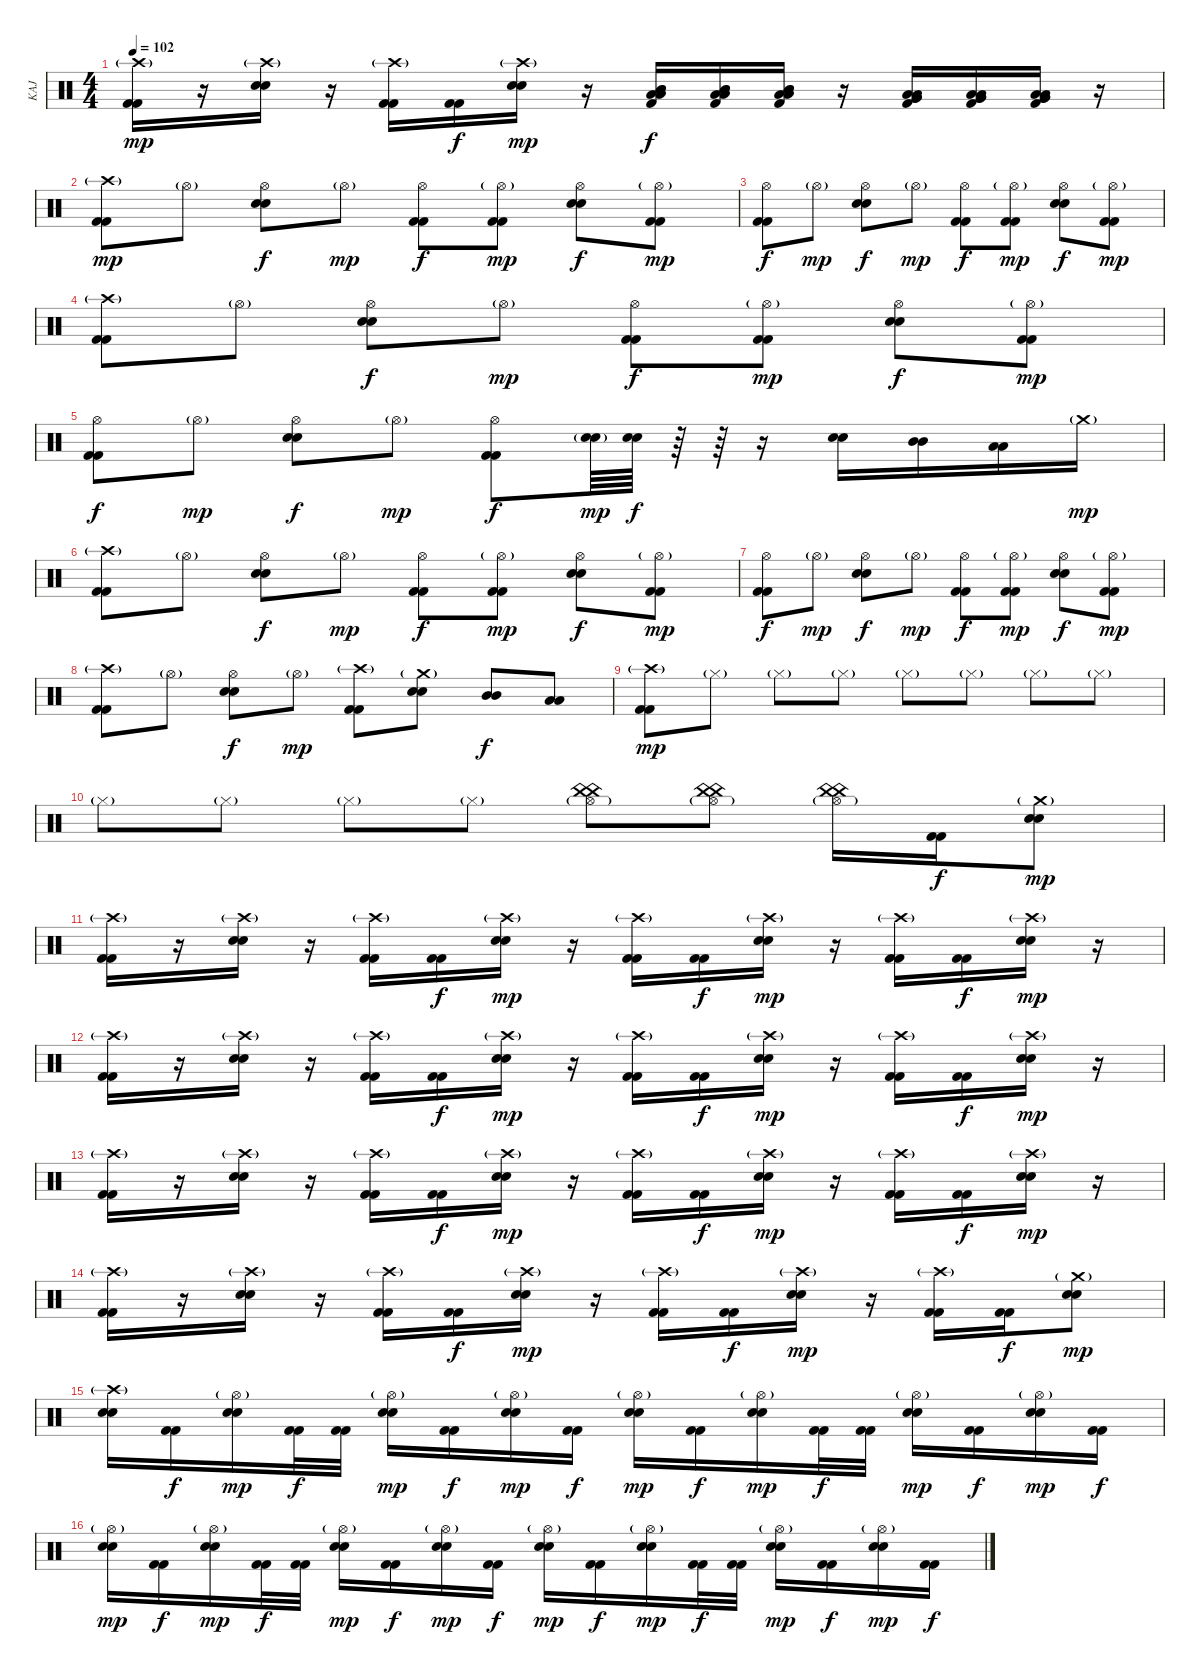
\track ("KAJ" "KAJ") {instrument percussion}
\staff {score}
\articulation defaults
\ts (4 4)
\tempo 102
\clef neutral
\ks c
("Crash high (hit)"{g} "Kick (hit) 2" "Kick (hit) 2").16{dy mp} r.16 ("Crash high (hit)"{g} "Electric Snare (hit)" "Electric Snare (hit)").16 r.16 ("Crash high (hit)"{g} "Kick (hit) 2" "Kick (hit) 2").16 ("Kick (hit) 2" "Kick (hit) 2").16{dy f} ("Crash high (hit)"{g} "Electric Snare (hit)" "Electric Snare (hit)").16{dy mp} r.16 ("Kick (hit) 2" "Mid Tom (hit)" "Mid Tom (hit)" "Low Tom (hit)" "Low Tom (hit)").16{dy f} ("Kick (hit) 2" "Mid Tom (hit)" "Mid Tom (hit)" "Low Tom (hit)" "Low Tom (hit)").16 ("Kick (hit) 2" "Mid Tom (hit)" "Mid Tom (hit)" "Low Tom (hit)" "Low Tom (hit)").16 r.16 ("Kick (hit) 2" "Low Tom (hit)" "Low Tom (hit)" "Very Low Tom (hit)" "Very Low Tom (hit)").16 ("Kick (hit) 2" "Low Tom (hit)" "Low Tom (hit)" "Very Low Tom (hit)" "Very Low Tom (hit)").16 ("Kick (hit) 2" "Low Tom (hit)" "Low Tom (hit)" "Very Low Tom (hit)" "Very Low Tom (hit)").16 r.16 |
("Crash high (hit)"{g} "Kick (hit) 2" "Kick (hit) 2").8{dy mp} "Hi-Hat (open)"{g}.8 ("Hi-Hat (open)" "Electric Snare (hit)" "Electric Snare (hit)").8{dy f} "Hi-Hat (open)"{g}.8{dy mp} ("Hi-Hat (open)" "Kick (hit) 2" "Kick (hit) 2").8{dy f} ("Hi-Hat (open)"{g} "Kick (hit) 2" "Kick (hit) 2").8{dy mp} ("Hi-Hat (open)" "Electric Snare (hit)" "Electric Snare (hit)").8{dy f} ("Hi-Hat (open)"{g} "Kick (hit) 2" "Kick (hit) 2").8{dy mp} |
("Hi-Hat (open)" "Kick (hit) 2" "Kick (hit) 2").8{dy f} "Hi-Hat (open)"{g}.8{dy mp} ("Hi-Hat (open)" "Electric Snare (hit)" "Electric Snare (hit)").8{dy f} "Hi-Hat (open)"{g}.8{dy mp} ("Hi-Hat (open)" "Kick (hit) 2" "Kick (hit) 2").8{dy f} ("Hi-Hat (open)"{g} "Kick (hit) 2" "Kick (hit) 2").8{dy mp} ("Hi-Hat (open)" "Electric Snare (hit)" "Electric Snare (hit)").8{dy f} ("Hi-Hat (open)"{g} "Kick (hit) 2" "Kick (hit) 2").8{dy mp} |
("Crash high (hit)"{g} "Kick (hit) 2" "Kick (hit) 2").8 "Hi-Hat (open)"{g}.8 ("Hi-Hat (open)" "Electric Snare (hit)" "Electric Snare (hit)").8{dy f} "Hi-Hat (open)"{g}.8{dy mp} ("Hi-Hat (open)" "Kick (hit) 2" "Kick (hit) 2").8{dy f} ("Hi-Hat (open)"{g} "Kick (hit) 2" "Kick (hit) 2").8{dy mp} ("Hi-Hat (open)" "Electric Snare (hit)" "Electric Snare (hit)").8{dy f} ("Hi-Hat (open)"{g} "Kick (hit) 2" "Kick (hit) 2").8{dy mp} |
("Hi-Hat (open)" "Kick (hit) 2" "Kick (hit) 2").8{dy f} "Hi-Hat (open)"{g}.8{dy mp} ("Hi-Hat (open)" "Electric Snare (hit)" "Electric Snare (hit)").8{dy f} "Hi-Hat (open)"{g}.8{dy mp} ("Hi-Hat (open)" "Kick (hit) 2" "Kick (hit) 2").8{dy f} ("Electric Snare (hit)" "Electric Snare (hit)"{g}).64{dy mp} ("Electric Snare (hit)" "Electric Snare (hit)").64{dy f} r.64 r.64 r.16 ("Electric Snare (hit)" "Electric Snare (hit)").16 ("Mid Tom (hit)" "Mid Tom (hit)").16 ("Low Tom (hit)" "Low Tom (hit)").16 "Crash medium (hit)"{g}.16{dy mp} |
("Crash high (hit)"{g} "Kick (hit) 2" "Kick (hit) 2").8 "Hi-Hat (open)"{g}.8 ("Hi-Hat (open)" "Electric Snare (hit)" "Electric Snare (hit)").8{dy f} "Hi-Hat (open)"{g}.8{dy mp} ("Hi-Hat (open)" "Kick (hit) 2" "Kick (hit) 2").8{dy f} ("Hi-Hat (open)"{g} "Kick (hit) 2" "Kick (hit) 2").8{dy mp} ("Hi-Hat (open)" "Electric Snare (hit)" "Electric Snare (hit)").8{dy f} ("Hi-Hat (open)"{g} "Kick (hit) 2" "Kick (hit) 2").8{dy mp} |
("Hi-Hat (open)" "Kick (hit) 2" "Kick (hit) 2").8{dy f} "Hi-Hat (open)"{g}.8{dy mp} ("Hi-Hat (open)" "Electric Snare (hit)" "Electric Snare (hit)").8{dy f} "Hi-Hat (open)"{g}.8{dy mp} ("Hi-Hat (open)" "Kick (hit) 2" "Kick (hit) 2").8{dy f} ("Hi-Hat (open)"{g} "Kick (hit) 2" "Kick (hit) 2").8{dy mp} ("Hi-Hat (open)" "Electric Snare (hit)" "Electric Snare (hit)").8{dy f} ("Hi-Hat (open)"{g} "Kick (hit) 2" "Kick (hit) 2").8{dy mp} |
("Crash high (hit)"{g} "Kick (hit) 2" "Kick (hit) 2").8 "Hi-Hat (open)"{g}.8 ("Hi-Hat (open)" "Electric Snare (hit)" "Electric Snare (hit)").8{dy f} "Hi-Hat (open)"{g}.8{dy mp} ("Crash high (hit)"{g} "Kick (hit) 2" "Kick (hit) 2").8 ("Crash medium (hit)"{g} "Electric Snare (hit)" "Electric Snare (hit)").8 ("Mid Tom (hit)" "Mid Tom (hit)").8{dy f} ("Low Tom (hit)" "Low Tom (hit)").8 |
("Crash high (hit)"{g} "Kick (hit) 2" "Kick (hit) 2").8{dy mp} "Hi-Hat (closed)"{g}.8 "Hi-Hat (closed)"{g}.8 "Hi-Hat (closed)"{g}.8 "Hi-Hat (closed)"{g}.8 "Hi-Hat (closed)"{g}.8 "Hi-Hat (closed)"{g}.8 "Hi-Hat (closed)"{g}.8 |
"Hi-Hat (closed)"{g}.8 "Hi-Hat (closed)"{g}.8 "Hi-Hat (closed)"{g}.8 "Hi-Hat (closed)"{g}.8 ("Hi-Hat (open)"{g} "China (hit)" "China (hit)").8 ("Hi-Hat (open)"{g} "China (hit)" "China (hit)").8 ("Hi-Hat (open)"{g} "China (hit)" "China (hit)").16 ("Kick (hit) 2" "Kick (hit) 2").16{dy f} ("Crash medium (hit)"{g} "Electric Snare (hit)" "Electric Snare (hit)").8{dy mp} |
("Crash high (hit)"{g} "Kick (hit) 2" "Kick (hit) 2").16 r.16 ("Crash high (hit)"{g} "Electric Snare (hit)" "Electric Snare (hit)").16 r.16 ("Crash high (hit)"{g} "Kick (hit) 2" "Kick (hit) 2").16 ("Kick (hit) 2" "Kick (hit) 2").16{dy f} ("Crash high (hit)"{g} "Electric Snare (hit)" "Electric Snare (hit)").16{dy mp} r.16 ("Crash high (hit)"{g} "Kick (hit) 2" "Kick (hit) 2").16 ("Kick (hit) 2" "Kick (hit) 2").16{dy f} ("Crash high (hit)"{g} "Electric Snare (hit)" "Electric Snare (hit)").16{dy mp} r.16 ("Crash high (hit)"{g} "Kick (hit) 2" "Kick (hit) 2").16 ("Kick (hit) 2" "Kick (hit) 2").16{dy f} ("Crash high (hit)"{g} "Electric Snare (hit)" "Electric Snare (hit)").16{dy mp} r.16 |
("Crash high (hit)"{g} "Kick (hit) 2" "Kick (hit) 2").16 r.16 ("Crash high (hit)"{g} "Electric Snare (hit)" "Electric Snare (hit)").16 r.16 ("Crash high (hit)"{g} "Kick (hit) 2" "Kick (hit) 2").16 ("Kick (hit) 2" "Kick (hit) 2").16{dy f} ("Crash high (hit)"{g} "Electric Snare (hit)" "Electric Snare (hit)").16{dy mp} r.16 ("Crash high (hit)"{g} "Kick (hit) 2" "Kick (hit) 2").16 ("Kick (hit) 2" "Kick (hit) 2").16{dy f} ("Crash high (hit)"{g} "Electric Snare (hit)" "Electric Snare (hit)").16{dy mp} r.16 ("Crash high (hit)"{g} "Kick (hit) 2" "Kick (hit) 2").16 ("Kick (hit) 2" "Kick (hit) 2").16{dy f} ("Crash high (hit)"{g} "Electric Snare (hit)" "Electric Snare (hit)").16{dy mp} r.16 |
("Crash high (hit)"{g} "Kick (hit) 2" "Kick (hit) 2").16 r.16 ("Crash high (hit)"{g} "Electric Snare (hit)" "Electric Snare (hit)").16 r.16 ("Crash high (hit)"{g} "Kick (hit) 2" "Kick (hit) 2").16 ("Kick (hit) 2" "Kick (hit) 2").16{dy f} ("Crash high (hit)"{g} "Electric Snare (hit)" "Electric Snare (hit)").16{dy mp} r.16 ("Crash high (hit)"{g} "Kick (hit) 2" "Kick (hit) 2").16 ("Kick (hit) 2" "Kick (hit) 2").16{dy f} ("Crash high (hit)"{g} "Electric Snare (hit)" "Electric Snare (hit)").16{dy mp} r.16 ("Crash high (hit)"{g} "Kick (hit) 2" "Kick (hit) 2").16 ("Kick (hit) 2" "Kick (hit) 2").16{dy f} ("Crash high (hit)"{g} "Electric Snare (hit)" "Electric Snare (hit)").16{dy mp} r.16 |
("Crash high (hit)"{g} "Kick (hit) 2" "Kick (hit) 2").16 r.16 ("Crash high (hit)"{g} "Electric Snare (hit)" "Electric Snare (hit)").16 r.16 ("Crash high (hit)"{g} "Kick (hit) 2" "Kick (hit) 2").16 ("Kick (hit) 2" "Kick (hit) 2").16{dy f} ("Crash high (hit)"{g} "Electric Snare (hit)" "Electric Snare (hit)").16{dy mp} r.16 ("Crash high (hit)"{g} "Kick (hit) 2" "Kick (hit) 2").16 ("Kick (hit) 2" "Kick (hit) 2").16{dy f} ("Crash high (hit)"{g} "Electric Snare (hit)" "Electric Snare (hit)").16{dy mp} r.16 ("Crash high (hit)"{g} "Kick (hit) 2" "Kick (hit) 2").16 ("Kick (hit) 2" "Kick (hit) 2").16{dy f} ("Crash medium (hit)"{g} "Electric Snare (hit)" "Electric Snare (hit)").8{dy mp} |
("Crash high (hit)"{g} "Electric Snare (hit)" "Electric Snare (hit)").16 ("Kick (hit) 2" "Kick (hit) 2").16{dy f} ("Hi-Hat (open)"{g} "Electric Snare (hit)" "Electric Snare (hit)").16{dy mp} ("Kick (hit) 2" "Kick (hit) 2").32{dy f} ("Kick (hit) 2" "Kick (hit) 2").32 ("Hi-Hat (open)"{g} "Electric Snare (hit)" "Electric Snare (hit)").16{dy mp} ("Kick (hit) 2" "Kick (hit) 2").16{dy f} ("Hi-Hat (open)"{g} "Electric Snare (hit)" "Electric Snare (hit)").16{dy mp} ("Kick (hit) 2" "Kick (hit) 2").16{dy f} ("Hi-Hat (open)"{g} "Electric Snare (hit)" "Electric Snare (hit)").16{dy mp} ("Kick (hit) 2" "Kick (hit) 2").16{dy f} ("Hi-Hat (open)"{g} "Electric Snare (hit)" "Electric Snare (hit)").16{dy mp} ("Kick (hit) 2" "Kick (hit) 2").32{dy f} ("Kick (hit) 2" "Kick (hit) 2").32 ("Hi-Hat (open)"{g} "Electric Snare (hit)" "Electric Snare (hit)").16{dy mp} ("Kick (hit) 2" "Kick (hit) 2").16{dy f} ("Hi-Hat (open)"{g} "Electric Snare (hit)" "Electric Snare (hit)").16{dy mp} ("Kick (hit) 2" "Kick (hit) 2").16{dy f} |
("Hi-Hat (open)"{g} "Electric Snare (hit)" "Electric Snare (hit)").16{dy mp} ("Kick (hit) 2" "Kick (hit) 2").16{dy f} ("Hi-Hat (open)"{g} "Electric Snare (hit)" "Electric Snare (hit)").16{dy mp} ("Kick (hit) 2" "Kick (hit) 2").32{dy f} ("Kick (hit) 2" "Kick (hit) 2").32 ("Hi-Hat (open)"{g} "Electric Snare (hit)" "Electric Snare (hit)").16{dy mp} ("Kick (hit) 2" "Kick (hit) 2").16{dy f} ("Hi-Hat (open)"{g} "Electric Snare (hit)" "Electric Snare (hit)").16{dy mp} ("Kick (hit) 2" "Kick (hit) 2").16{dy f} ("Hi-Hat (open)"{g} "Electric Snare (hit)" "Electric Snare (hit)").16{dy mp} ("Kick (hit) 2" "Kick (hit) 2").16{dy f} ("Hi-Hat (open)"{g} "Electric Snare (hit)" "Electric Snare (hit)").16{dy mp} ("Kick (hit) 2" "Kick (hit) 2").32{dy f} ("Kick (hit) 2" "Kick (hit) 2").32 ("Hi-Hat (open)"{g} "Electric Snare (hit)" "Electric Snare (hit)").16{dy mp} ("Kick (hit) 2" "Kick (hit) 2").16{dy f} ("Hi-Hat (open)"{g} "Electric Snare (hit)" "Electric Snare (hit)").16{dy mp} ("Kick (hit) 2" "Kick (hit) 2").16{dy f}
